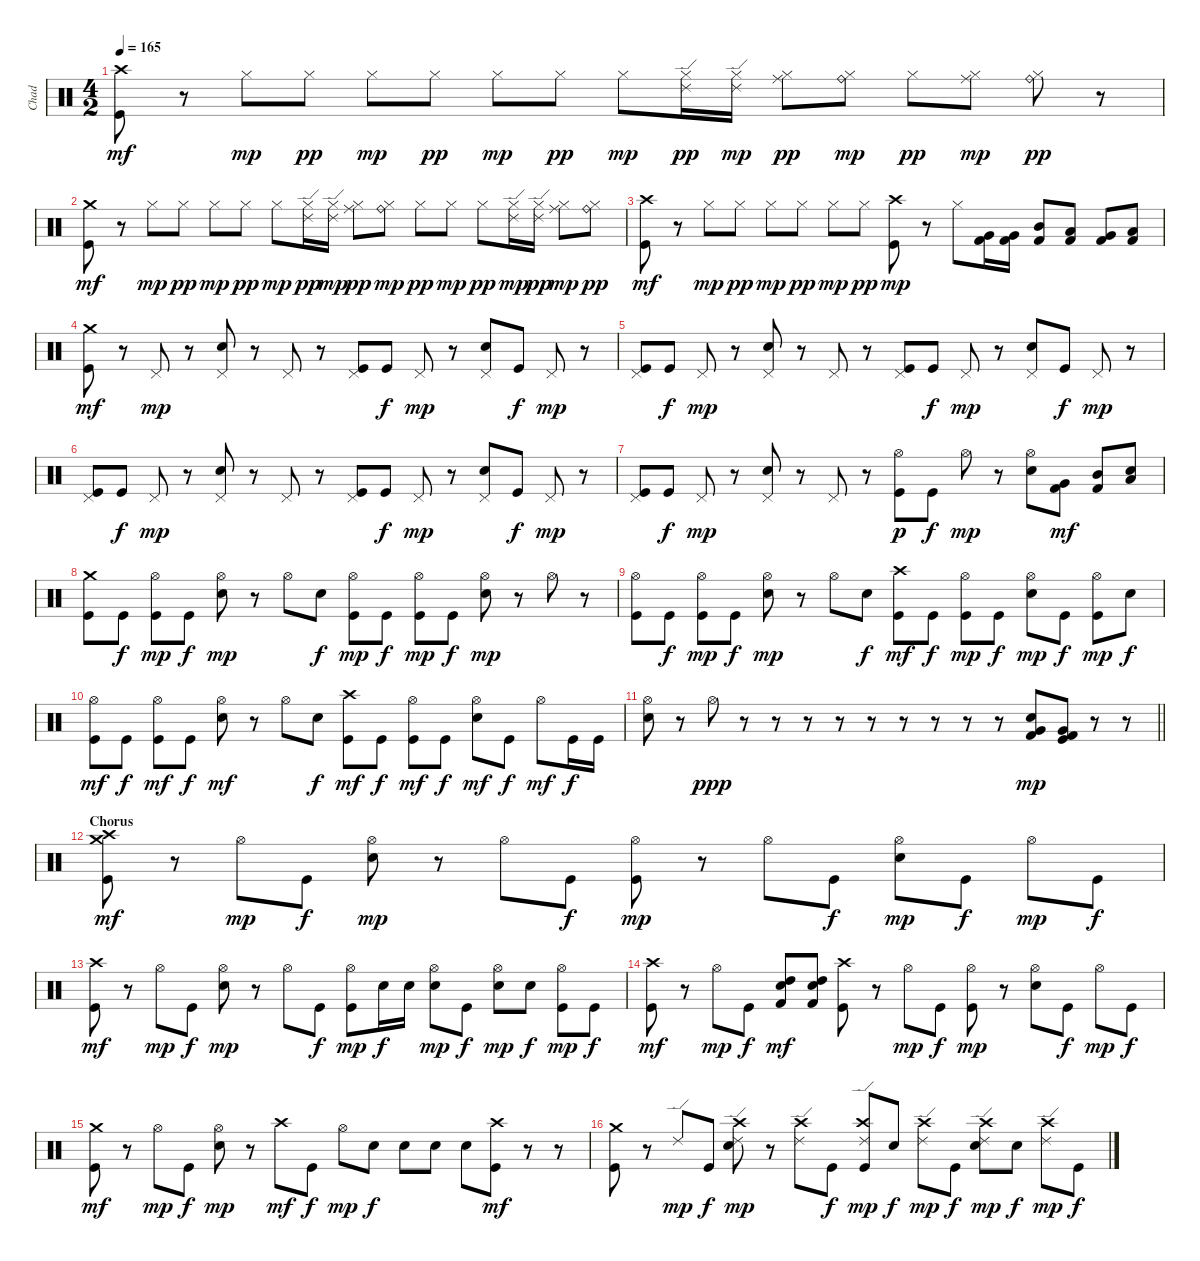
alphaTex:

\track ("Chad" "Chad") {instrument percussion}
\staff {score}
\articulation defaults
\ts (4 2)
\tempo 165
\clef neutral
\ks c
("Kick (hit)" "Crash high (hit)").8{dy mf} r.8 "Hi-Hat (closed)".8{dy mp} "Hi-Hat (closed)".8{dy pp} "Hi-Hat (closed)".8{dy mp} "Hi-Hat (closed)".8{dy pp} "Hi-Hat (closed)".8{dy mp} "Hi-Hat (closed)".8{dy pp} "Hi-Hat (closed)".8{dy mp} ("Ride (edge) 2" "Hi-Hat (closed)").16{dy pp} ("Ride (edge) 2" "Hi-Hat (closed)").16{dy mp} ("Ride (middle)" "Hi-Hat (closed)").8{dy pp} ("Ride (bell)" "Hi-Hat (closed)").8{dy mp} "Hi-Hat (closed)".8{dy pp} ("Ride (middle)" "Hi-Hat (closed)").8{dy mp} ("Ride (bell)" "Hi-Hat (closed)").8{dy pp} r.8 |
("Kick (hit)" "Crash medium (hit)").8{dy mf} r.8 "Hi-Hat (closed)".8{dy mp} "Hi-Hat (closed)".8{dy pp} "Hi-Hat (closed)".8{dy mp} "Hi-Hat (closed)".8{dy pp} "Hi-Hat (closed)".8{dy mp} ("Ride (edge) 2" "Hi-Hat (closed)").16{dy pp} ("Ride (edge) 2" "Hi-Hat (closed)").16{dy mp} ("Ride (middle)" "Hi-Hat (closed)").8{dy pp} ("Ride (bell)" "Hi-Hat (closed)").8{dy mp} "Hi-Hat (closed)".8{dy pp} "Hi-Hat (closed)".8{dy mp} "Hi-Hat (closed)".8{dy pp} ("Ride (edge) 2" "Hi-Hat (closed)").16{dy mp} ("Ride (edge) 2" "Hi-Hat (closed)").16{dy pp} ("Ride (middle)" "Hi-Hat (closed)").8{dy mp} ("Ride (bell)" "Hi-Hat (closed)").8{dy pp} |
("Kick (hit)" "Crash high (hit)").8{dy mf} r.8 "Hi-Hat (closed)".8{dy mp} "Hi-Hat (closed)".8{dy pp} "Hi-Hat (closed)".8{dy mp} "Hi-Hat (closed)".8{dy pp} "Hi-Hat (closed)".8{dy mp} "Hi-Hat (closed)".8{dy pp} ("Kick (hit)" "Crash high (hit)").8{dy mp} r.8 "Hi-Hat (closed)".8 ("Very Low Tom (hit)" "Kick (hit) 2").16 ("Very Low Tom (hit)" "Kick (hit) 2").16 ("Mid Tom (hit)" "Kick (hit) 2").8 ("Low Tom (hit)" "Kick (hit) 2").8 ("Very Low Tom (hit)" "Kick (hit) 2").8 ("Low Floor Tom (hit)" "Kick (hit) 2").8 |
("Kick (hit)" "Crash medium (hit)").8{dy mf} r.8 "Pedal Hi-Hat (hit)".8{dy mp} r.8 ("Snare (hit) 2" "Pedal Hi-Hat (hit)").8 r.8 "Pedal Hi-Hat (hit)".8 r.8 ("Kick (hit)" "Pedal Hi-Hat (hit)").8 "Kick (hit)".8{dy f} "Pedal Hi-Hat (hit)".8{dy mp} r.8 ("Snare (hit) 2" "Pedal Hi-Hat (hit)").8 "Kick (hit)".8{dy f} "Pedal Hi-Hat (hit)".8{dy mp} r.8 |
("Kick (hit)" "Pedal Hi-Hat (hit)").8 "Kick (hit)".8{dy f} "Pedal Hi-Hat (hit)".8{dy mp} r.8 ("Snare (hit) 2" "Pedal Hi-Hat (hit)").8 r.8 "Pedal Hi-Hat (hit)".8 r.8 ("Kick (hit)" "Pedal Hi-Hat (hit)").8 "Kick (hit)".8{dy f} "Pedal Hi-Hat (hit)".8{dy mp} r.8 ("Snare (hit) 2" "Pedal Hi-Hat (hit)").8 "Kick (hit)".8{dy f} "Pedal Hi-Hat (hit)".8{dy mp} r.8 |
("Kick (hit)" "Pedal Hi-Hat (hit)").8 "Kick (hit)".8{dy f} "Pedal Hi-Hat (hit)".8{dy mp} r.8 ("Snare (hit) 2" "Pedal Hi-Hat (hit)").8 r.8 "Pedal Hi-Hat (hit)".8 r.8 ("Kick (hit)" "Pedal Hi-Hat (hit)").8 "Kick (hit)".8{dy f} "Pedal Hi-Hat (hit)".8{dy mp} r.8 ("Snare (hit) 2" "Pedal Hi-Hat (hit)").8 "Kick (hit)".8{dy f} "Pedal Hi-Hat (hit)".8{dy mp} r.8 |
("Kick (hit)" "Pedal Hi-Hat (hit)").8 "Kick (hit)".8{dy f} "Pedal Hi-Hat (hit)".8{dy mp} r.8 ("Snare (hit) 2" "Pedal Hi-Hat (hit)").8 r.8 "Pedal Hi-Hat (hit)".8 r.8 ("Kick (hit)" "Hi-Hat (open)").8{dy p} "Kick (hit)".8{dy f} "Hi-Hat (open)".8{dy mp} r.8 ("Snare (hit) 2" "Hi-Hat (open)").8 ("Kick (hit) 2" "Very Low Tom (hit)").8{dy mf} ("Kick (hit) 2" "Mid Tom (hit)").8 ("Snare (hit) 2" "Low Tom (hit)").8 |
("Kick (hit)" "Crash medium (hit)").8 "Kick (hit)".8{dy f} ("Kick (hit)" "Hi-Hat (open)").8{dy mp} "Kick (hit)".8{dy f} ("Snare (hit) 2" "Hi-Hat (open)").8{dy mp} r.8 "Hi-Hat (open)".8 "Snare (hit) 2".8{dy f} ("Kick (hit)" "Hi-Hat (open)").8{dy mp} "Kick (hit)".8{dy f} ("Kick (hit)" "Hi-Hat (open)").8{dy mp} "Kick (hit)".8{dy f} ("Snare (hit) 2" "Hi-Hat (open)").8{dy mp} r.8 "Hi-Hat (open)".8 r.8 |
("Kick (hit)" "Hi-Hat (open)").8 "Kick (hit)".8{dy f} ("Kick (hit)" "Hi-Hat (open)").8{dy mp} "Kick (hit)".8{dy f} ("Snare (hit) 2" "Hi-Hat (open)").8{dy mp} r.8 "Hi-Hat (open)".8 "Snare (hit) 2".8{dy f} ("Kick (hit)" "Crash high (hit)").8{dy mf} "Kick (hit)".8{dy f} ("Kick (hit)" "Hi-Hat (open)").8{dy mp} "Kick (hit)".8{dy f} ("Snare (hit) 2" "Hi-Hat (open)").8{dy mp} "Kick (hit)".8{dy f} ("Kick (hit)" "Hi-Hat (open)").8{dy mp} "Snare (hit) 2".8{dy f} |
("Kick (hit)" "Hi-Hat (open)").8{dy mf} "Kick (hit)".8{dy f} ("Kick (hit)" "Hi-Hat (open)").8{dy mf} "Kick (hit)".8{dy f} ("Snare (hit) 2" "Hi-Hat (open)").8{dy mf} r.8 "Hi-Hat (open)".8 "Snare (hit) 2".8{dy f} ("Kick (hit)" "Crash high (hit)").8{dy mf} "Kick (hit)".8{dy f} ("Kick (hit)" "Hi-Hat (open)").8{dy mf} "Kick (hit)".8{dy f} ("Snare (hit) 2" "Hi-Hat (open)").8{dy mf} "Kick (hit)".8{dy f} "Hi-Hat (open)".8{dy mf} "Kick (hit)".16{dy f} "Kick (hit)".16 |
\barLineRight lightlight
("Snare (hit) 2" "Hi-Hat (open)").8 r.8 "Hi-Hat (open)".8{dy ppp} r.8 r.8 r.8 r.8 r.8 r.8 r.8 r.8 r.8 ("Snare (hit) 2" "Very Low Tom (hit)" "Kick (hit) 2").8{dy mp} ("Kick (hit)" "Very Low Tom (hit)" "Kick (hit) 2").8 r.8 r.8 |
\section ("" "Chorus")
("Kick (hit)" "Crash medium (hit)" "Crash high (hit)").8{dy mf} r.8 "Hi-Hat (open)".8{dy mp} "Kick (hit)".8{dy f} ("Snare (hit) 2" "Hi-Hat (open)").8{dy mp} r.8 "Hi-Hat (open)".8 "Kick (hit)".8{dy f} ("Kick (hit)" "Hi-Hat (open)").8{dy mp} r.8 "Hi-Hat (open)".8 "Kick (hit)".8{dy f} ("Snare (hit) 2" "Hi-Hat (open)").8{dy mp} "Kick (hit)".8{dy f} "Hi-Hat (open)".8{dy mp} "Kick (hit)".8{dy f} |
("Kick (hit)" "Crash high (hit)").8{dy mf} r.8 "Hi-Hat (open)".8{dy mp} "Kick (hit)".8{dy f} ("Snare (hit) 2" "Hi-Hat (open)").8{dy mp} r.8 "Hi-Hat (open)".8 "Kick (hit)".8{dy f} ("Kick (hit)" "Hi-Hat (open)").8{dy mp} "Snare (hit) 2".16{dy f} "Snare (hit) 2".16 ("Snare (hit) 2" "Hi-Hat (open)").8{dy mp} "Kick (hit)".8{dy f} ("Snare (hit) 2" "Hi-Hat (open)").8{dy mp} "Snare (hit) 2".8{dy f} ("Kick (hit)" "Hi-Hat (open)").8{dy mp} "Kick (hit)".8{dy f} |
("Kick (hit)" "Crash high (hit)").8{dy mf} r.8 "Hi-Hat (open)".8{dy mp} "Kick (hit)".8{dy f} ("Snare (hit) 2" "Kick (hit) 2" "High Tom (hit)").8{dy mf} ("Snare (hit) 2" "Kick (hit) 2" "High Tom (hit)").8 ("Kick (hit)" "Crash high (hit)").8 r.8 "Hi-Hat (open)".8{dy mp} "Kick (hit)".8{dy f} ("Kick (hit)" "Hi-Hat (open)").8{dy mp} r.8 ("Snare (hit) 2" "Hi-Hat (open)").8 "Kick (hit)".8{dy f} "Hi-Hat (open)".8{dy mp} "Kick (hit)".8{dy f} |
("Kick (hit)" "Crash medium (hit)").8{dy mf} r.8 "Hi-Hat (open)".8{dy mp} "Kick (hit)".8{dy f} ("Snare (hit) 2" "Hi-Hat (open)").8{dy mp} r.8 "Crash high (hit)".8{dy mf} "Kick (hit)".8{dy f} "Hi-Hat (open)".8{dy mp} "Snare (hit) 2".8{dy f} "Snare (hit) 2".8 "Snare (hit) 2".8 "Snare (hit) 2".8 ("Kick (hit)" "Crash high (hit)").8{dy mf} r.8 r.8 |
("Kick (hit)" "Crash medium (hit)").8 r.8 "Ride (edge) 2".8{dy mp} "Kick (hit)".8{dy f} ("Snare (hit) 2" "Ride (edge) 2" "Crash high (hit)").8{dy mp} r.8 ("Ride (edge) 2" "Crash high (hit)").8 "Kick (hit)".8{dy f} ("Kick (hit)" "Ride (edge) 2" "Crash high (hit)").8{dy mp} "Snare (hit) 2".8{dy f} ("Ride (edge) 2" "Crash high (hit)").8{dy mp} "Kick (hit)".8{dy f} ("Snare (hit) 2" "Ride (edge) 2" "Crash high (hit)").8{dy mp} "Snare (hit) 2".8{dy f} ("Ride (edge) 2" "Crash high (hit)").8{dy mp} "Kick (hit)".8{dy f}
